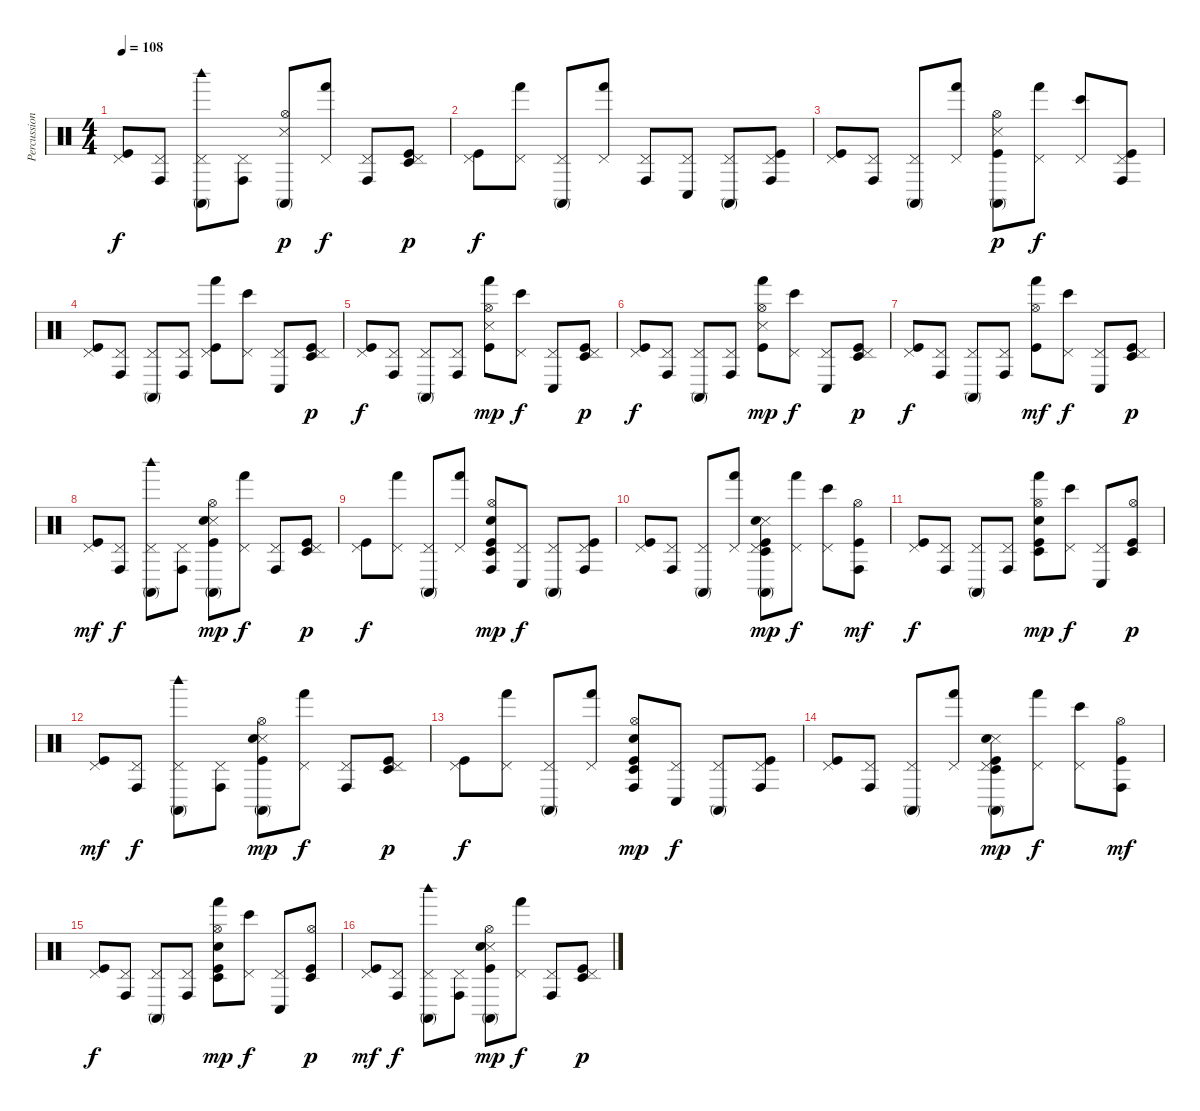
\track ("Percussions" "Percussion") {instrument percussion}
\staff {score}
\articulation defaults
\ts (4 4)
\tempo 108
\clef neutral
\ks c
("Pedal Hi-Hat (hit)" "Kick (hit)").8{dy f} ("Pedal Hi-Hat (hit)" "Conga high (hit)").8 ("Pedal Hi-Hat (hit)" "Conga high (mute)" "Woodblock high (hit)").8 ("Pedal Hi-Hat (hit)" "Conga high (hit)").8 ("Hi-Hat (open)" "Snare (side stick) 3" "Conga high (mute)").8{dy p} ("Pedal Hi-Hat (hit)" "Hand (hit)").8{dy f} ("Pedal Hi-Hat (hit)" "Conga high (hit)").8 ("Pedal Hi-Hat (hit)" "Kick (hit)" "Timbale low (hit)").8{dy p} |
("Pedal Hi-Hat (hit)" "Kick (hit)").8{dy f} ("Pedal Hi-Hat (hit)" "Hand (hit)").8 ("Pedal Hi-Hat (hit)" "Conga high (mute)").8 ("Pedal Hi-Hat (hit)" "Hand (hit)").8 ("Pedal Hi-Hat (hit)" "Conga high (hit)").8 ("Pedal Hi-Hat (hit)" "Conga low (hit)").8 ("Pedal Hi-Hat (hit)" "Conga high (mute)").8 ("Pedal Hi-Hat (hit)" "Kick (hit)" "Conga high (hit)").8 |
("Pedal Hi-Hat (hit)" "Kick (hit)").8 ("Pedal Hi-Hat (hit)" "Conga high (hit)").8 ("Pedal Hi-Hat (hit)" "Conga high (mute)").8 ("Pedal Hi-Hat (hit)" "Hand (hit)").8 ("Hi-Hat (open)" "Conga high (mute)" "Snare (side stick) 3" "Kick (hit)").8{dy p} ("Pedal Hi-Hat (hit)" "Hand (hit)").8{dy f} ("Pedal Hi-Hat (hit)" "Bongo High (hit)").8 ("Pedal Hi-Hat (hit)" "Conga high (hit)" "Kick (hit)").8 |
("Pedal Hi-Hat (hit)" "Kick (hit)").8 ("Pedal Hi-Hat (hit)" "Conga high (hit)").8 ("Pedal Hi-Hat (hit)" "Conga high (mute)").8 ("Pedal Hi-Hat (hit)" "Conga high (hit)").8 ("Pedal Hi-Hat (hit)" "Hand (hit)" "Kick (hit)").8 ("Pedal Hi-Hat (hit)" "Bongo High (hit)").8 ("Pedal Hi-Hat (hit)" "Conga low (hit)").8 ("Pedal Hi-Hat (hit)" "Kick (hit)" "Timbale low (hit)").8{dy p} |
("Pedal Hi-Hat (hit)" "Kick (hit)").8{dy f} ("Pedal Hi-Hat (hit)" "Conga high (hit)").8 ("Pedal Hi-Hat (hit)" "Conga high (mute)").8 ("Pedal Hi-Hat (hit)" "Conga high (hit)").8 ("Hi-Hat (open)" "Hand (hit)" "Snare (side stick) 3" "Kick (hit)").8{dy mp} ("Pedal Hi-Hat (hit)" "Bongo High (hit)").8{dy f} ("Pedal Hi-Hat (hit)" "Conga low (hit)").8 ("Pedal Hi-Hat (hit)" "Kick (hit)" "Timbale low (hit)").8{dy p} |
("Pedal Hi-Hat (hit)" "Kick (hit)").8{dy f} ("Pedal Hi-Hat (hit)" "Conga high (hit)").8 ("Pedal Hi-Hat (hit)" "Conga high (mute)").8 ("Pedal Hi-Hat (hit)" "Conga high (hit)").8 ("Hi-Hat (open)" "Hand (hit)" "Snare (side stick) 3" "Kick (hit)").8{dy mp} ("Pedal Hi-Hat (hit)" "Bongo High (hit)").8{dy f} ("Pedal Hi-Hat (hit)" "Conga low (hit)").8 ("Pedal Hi-Hat (hit)" "Kick (hit)" "Timbale low (hit)").8{dy p} |
("Pedal Hi-Hat (hit)" "Kick (hit)").8{dy f} ("Pedal Hi-Hat (hit)" "Conga high (hit)").8 ("Pedal Hi-Hat (hit)" "Conga high (mute)").8 ("Pedal Hi-Hat (hit)" "Conga high (hit)").8 ("Hi-Hat (open)" "Hand (hit)" "Kick (hit)").8{dy mf} ("Pedal Hi-Hat (hit)" "Bongo High (hit)").8{dy f} ("Pedal Hi-Hat (hit)" "Conga low (hit)").8 ("Pedal Hi-Hat (hit)" "Kick (hit)" "Timbale low (hit)").8{dy p} |
("Pedal Hi-Hat (hit)" "Kick (hit)").8{dy mf} ("Pedal Hi-Hat (hit)" "Conga high (hit)").8{dy f} ("Pedal Hi-Hat (hit)" "Conga high (mute)" "Woodblock high (hit)").8 ("Pedal Hi-Hat (hit)" "Conga high (hit)").8 ("Hi-Hat (open)" "Snare (side stick) 3" "Kick (hit)" "Conga high (mute)" "Snare (hit) 2").8{dy mp} ("Pedal Hi-Hat (hit)" "Hand (hit)").8{dy f} ("Pedal Hi-Hat (hit)" "Conga high (hit)").8 ("Pedal Hi-Hat (hit)" "Kick (hit)" "Timbale low (hit)").8{dy p} |
("Pedal Hi-Hat (hit)" "Kick (hit)").8{dy f} ("Pedal Hi-Hat (hit)" "Hand (hit)").8 ("Pedal Hi-Hat (hit)" "Conga high (mute)").8 ("Pedal Hi-Hat (hit)" "Hand (hit)").8 ("Hi-Hat (open)" "Conga high (hit)" "Kick (hit)" "Snare (hit) 2" "Timbale low (hit)").8{dy mp} ("Pedal Hi-Hat (hit)" "Conga low (hit)").8{dy f} ("Pedal Hi-Hat (hit)" "Conga high (mute)").8 ("Pedal Hi-Hat (hit)" "Kick (hit)" "Conga high (hit)").8 |
("Pedal Hi-Hat (hit)" "Kick (hit)").8 ("Pedal Hi-Hat (hit)" "Conga high (hit)").8 ("Pedal Hi-Hat (hit)" "Conga high (mute)").8 ("Pedal Hi-Hat (hit)" "Hand (hit)").8 ("Pedal Hi-Hat (hit)" "Conga high (mute)" "Snare (side stick) 3" "Kick (hit)" "Snare (hit) 2" "Timbale low (hit)").8{dy mp} ("Pedal Hi-Hat (hit)" "Hand (hit)").8{dy f} ("Pedal Hi-Hat (hit)" "Bongo High (hit)").8 ("Hi-Hat (open)" "Conga high (hit)" "Kick (hit)").8{dy mf} |
("Pedal Hi-Hat (hit)" "Kick (hit)").8{dy f} ("Pedal Hi-Hat (hit)" "Conga high (hit)").8 ("Pedal Hi-Hat (hit)" "Conga high (mute)").8 ("Pedal Hi-Hat (hit)" "Conga high (hit)").8 ("Hi-Hat (open)" "Hand (hit)" "Kick (hit)" "Snare (hit) 2" "Timbale low (hit)").8{dy mp} ("Pedal Hi-Hat (hit)" "Bongo High (hit)").8{dy f} ("Pedal Hi-Hat (hit)" "Conga low (hit)").8 ("Hi-Hat (open)" "Kick (hit)" "Timbale low (hit)").8{dy p} |
("Pedal Hi-Hat (hit)" "Kick (hit)").8{dy mf} ("Pedal Hi-Hat (hit)" "Conga high (hit)").8{dy f} ("Pedal Hi-Hat (hit)" "Conga high (mute)" "Woodblock high (hit)").8 ("Pedal Hi-Hat (hit)" "Conga high (hit)").8 ("Hi-Hat (open)" "Snare (side stick) 3" "Kick (hit)" "Conga high (mute)" "Snare (hit) 2").8{dy mp} ("Pedal Hi-Hat (hit)" "Hand (hit)").8{dy f} ("Pedal Hi-Hat (hit)" "Conga high (hit)").8 ("Pedal Hi-Hat (hit)" "Kick (hit)" "Timbale low (hit)").8{dy p} |
("Pedal Hi-Hat (hit)" "Kick (hit)").8{dy f} ("Pedal Hi-Hat (hit)" "Hand (hit)").8 ("Pedal Hi-Hat (hit)" "Conga high (mute)").8 ("Pedal Hi-Hat (hit)" "Hand (hit)").8 ("Hi-Hat (open)" "Conga high (hit)" "Kick (hit)" "Snare (hit) 2" "Timbale low (hit)").8{dy mp} ("Pedal Hi-Hat (hit)" "Conga low (hit)").8{dy f} ("Pedal Hi-Hat (hit)" "Conga high (mute)").8 ("Pedal Hi-Hat (hit)" "Kick (hit)" "Conga high (hit)").8 |
("Pedal Hi-Hat (hit)" "Kick (hit)").8 ("Pedal Hi-Hat (hit)" "Conga high (hit)").8 ("Pedal Hi-Hat (hit)" "Conga high (mute)").8 ("Pedal Hi-Hat (hit)" "Hand (hit)").8 ("Pedal Hi-Hat (hit)" "Conga high (mute)" "Snare (side stick) 3" "Kick (hit)" "Snare (hit) 2" "Timbale low (hit)").8{dy mp} ("Pedal Hi-Hat (hit)" "Hand (hit)").8{dy f} ("Pedal Hi-Hat (hit)" "Bongo High (hit)").8 ("Hi-Hat (open)" "Conga high (hit)" "Kick (hit)").8{dy mf} |
("Pedal Hi-Hat (hit)" "Kick (hit)").8{dy f} ("Pedal Hi-Hat (hit)" "Conga high (hit)").8 ("Pedal Hi-Hat (hit)" "Conga high (mute)").8 ("Pedal Hi-Hat (hit)" "Conga high (hit)").8 ("Hi-Hat (open)" "Hand (hit)" "Kick (hit)" "Snare (hit) 2" "Timbale low (hit)").8{dy mp} ("Pedal Hi-Hat (hit)" "Bongo High (hit)").8{dy f} ("Pedal Hi-Hat (hit)" "Conga low (hit)").8 ("Hi-Hat (open)" "Kick (hit)" "Timbale low (hit)").8{dy p} |
("Pedal Hi-Hat (hit)" "Kick (hit)").8{dy mf} ("Pedal Hi-Hat (hit)" "Conga high (hit)").8{dy f} ("Pedal Hi-Hat (hit)" "Conga high (mute)" "Woodblock high (hit)").8 ("Pedal Hi-Hat (hit)" "Conga high (hit)").8 ("Hi-Hat (open)" "Snare (side stick) 3" "Kick (hit)" "Conga high (mute)" "Snare (hit) 2").8{dy mp} ("Pedal Hi-Hat (hit)" "Hand (hit)").8{dy f} ("Pedal Hi-Hat (hit)" "Conga high (hit)").8 ("Pedal Hi-Hat (hit)" "Kick (hit)" "Timbale low (hit)").8{dy p}
